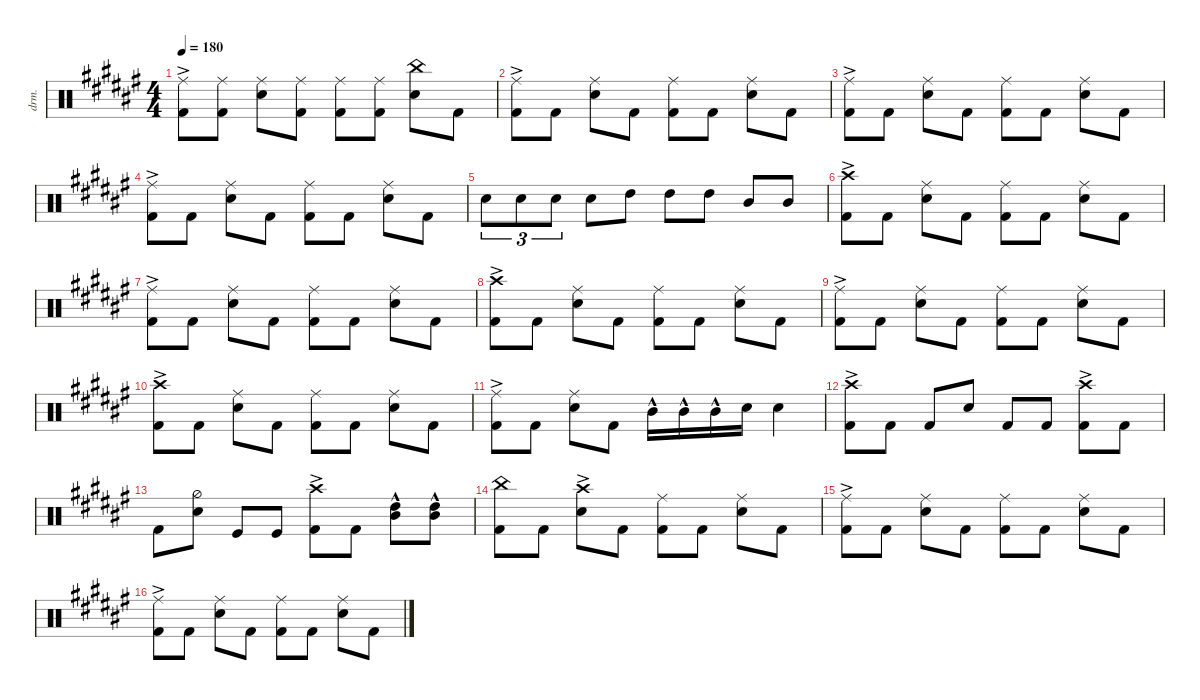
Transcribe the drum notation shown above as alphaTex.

\defaultSystemsLayout 4
\hideDynamics
\bracketExtendMode nobrackets
\otherSystemsTrackNameOrientation horizontal
\track ("Drum" "drm.") {instrument percussion}
\staff {score}
\articulation defaults
\ts (4 4)
\tempo 180
\clef neutral
\ks f#
("Kick (hit) 2"{ac acc forcenatural} "Ride (middle)"{acc forcenatural}).8{dy f beam Down} ("Kick (hit) 2"{acc forcenatural} "Ride (middle)"{acc forcenatural}).8{beam Down} ("Snare (hit) 2"{acc forcenatural} "Ride (middle)"{acc forcenatural}).8{beam Down} ("Kick (hit) 2"{acc forcenatural} "Ride (middle)"{acc forcenatural}).8{beam Down} ("Kick (hit) 2"{acc forcenatural} "Ride (middle)"{acc forcenatural}).8{beam Down} ("Kick (hit) 2"{acc forcenatural} "Ride (middle)"{acc forcenatural}).8{beam Down} ("Snare (hit) 2"{acc forcenatural} "China (hit)"{acc forcenatural}).8{beam Down} "Kick (hit) 2"{acc forcenatural}.8{beam Down} |
("Kick (hit) 2"{ac acc forcenatural} "Ride (middle)"{acc forcenatural}).8{beam Down} "Kick (hit) 2"{acc forcenatural}.8{beam Down} ("Snare (hit) 2"{acc forcenatural} "Ride (middle)"{acc forcenatural}).8{beam Down} "Kick (hit) 2"{acc forcenatural}.8{beam Down} ("Kick (hit) 2"{acc forcenatural} "Ride (middle)"{acc forcenatural}).8{beam Down} "Kick (hit) 2"{acc forcenatural}.8{beam Down} ("Snare (hit) 2"{acc forcenatural} "Ride (middle)"{acc forcenatural}).8{beam Down} "Kick (hit) 2"{acc forcenatural}.8{beam Down} |
("Kick (hit) 2"{ac acc forcenatural} "Ride (middle)"{acc forcenatural}).8{beam Down} "Kick (hit) 2"{acc forcenatural}.8{beam Down} ("Snare (hit) 2"{acc forcenatural} "Ride (middle)"{acc forcenatural}).8{beam Down} "Kick (hit) 2"{acc forcenatural}.8{beam Down} ("Kick (hit) 2"{acc forcenatural} "Ride (middle)"{acc forcenatural}).8{beam Down} "Kick (hit) 2"{acc forcenatural}.8{beam Down} ("Snare (hit) 2"{acc forcenatural} "Ride (middle)"{acc forcenatural}).8{beam Down} "Kick (hit) 2"{acc forcenatural}.8{beam Down} |
("Kick (hit) 2"{ac acc forcenatural} "Ride (middle)"{acc forcenatural}).8{beam Down} "Kick (hit) 2"{acc forcenatural}.8{beam Down} ("Snare (hit) 2"{acc forcenatural} "Ride (middle)"{acc forcenatural}).8{beam Down} "Kick (hit) 2"{acc forcenatural}.8{beam Down} ("Kick (hit) 2"{acc forcenatural} "Ride (middle)"{acc forcenatural}).8{beam Down} "Kick (hit) 2"{acc forcenatural}.8{beam Down} ("Snare (hit) 2"{acc forcenatural} "Ride (middle)"{acc forcenatural}).8{beam Down} "Kick (hit) 2"{acc forcenatural}.8{beam Down} |
"Snare (hit) 2"{acc forcenatural}.8{tu (3 2) beam Down} "Snare (hit) 2"{acc forcenatural}.8{tu (3 2) beam Down} "Snare (hit) 2"{acc forcenatural}.8{tu (3 2) beam Down} "Snare (hit) 2"{acc forcenatural}.8{beam Down} "High Tom (hit)"{acc forcenatural}.8{beam Down} "High Tom (hit)"{acc forcenatural}.8{beam Down} "High Tom (hit)"{acc forcenatural}.8{beam Down} "Mid Tom (hit)"{acc forcenatural}.8{beam Up} "Mid Tom (hit)"{acc forcenatural}.8{beam Up} |
("Kick (hit) 2"{ac acc forcenatural} "Crash high (hit)"{acc forcenatural}).8{beam Down} "Kick (hit) 2"{acc forcenatural}.8{beam Down} ("Snare (hit) 2"{acc forcenatural} "Ride (middle)"{acc forcenatural}).8{beam Down} "Kick (hit) 2"{acc forcenatural}.8{beam Down} ("Kick (hit) 2"{acc forcenatural} "Ride (middle)"{acc forcenatural}).8{beam Down} "Kick (hit) 2"{acc forcenatural}.8{beam Down} ("Snare (hit) 2"{acc forcenatural} "Ride (middle)"{acc forcenatural}).8{beam Down} "Kick (hit) 2"{acc forcenatural}.8{beam Down} |
("Kick (hit) 2"{ac acc forcenatural} "Ride (middle)"{acc forcenatural}).8{beam Down} "Kick (hit) 2"{acc forcenatural}.8{beam Down} ("Snare (hit) 2"{acc forcenatural} "Ride (middle)"{acc forcenatural}).8{beam Down} "Kick (hit) 2"{acc forcenatural}.8{beam Down} ("Kick (hit) 2"{acc forcenatural} "Ride (middle)"{acc forcenatural}).8{beam Down} "Kick (hit) 2"{acc forcenatural}.8{beam Down} ("Snare (hit) 2"{acc forcenatural} "Ride (middle)"{acc forcenatural}).8{beam Down} "Kick (hit) 2"{acc forcenatural}.8{beam Down} |
("Kick (hit) 2"{ac acc forcenatural} "Crash high (hit)"{acc forcenatural}).8{beam Down} "Kick (hit) 2"{acc forcenatural}.8{beam Down} ("Snare (hit) 2"{acc forcenatural} "Ride (middle)"{acc forcenatural}).8{beam Down} "Kick (hit) 2"{acc forcenatural}.8{beam Down} ("Kick (hit) 2"{acc forcenatural} "Ride (middle)"{acc forcenatural}).8{beam Down} "Kick (hit) 2"{acc forcenatural}.8{beam Down} ("Snare (hit) 2"{acc forcenatural} "Ride (middle)"{acc forcenatural}).8{beam Down} "Kick (hit) 2"{acc forcenatural}.8{beam Down} |
("Kick (hit) 2"{ac acc forcenatural} "Ride (middle)"{acc forcenatural}).8{beam Down} "Kick (hit) 2"{acc forcenatural}.8{beam Down} ("Snare (hit) 2"{acc forcenatural} "Ride (middle)"{acc forcenatural}).8{beam Down} "Kick (hit) 2"{acc forcenatural}.8{beam Down} ("Kick (hit) 2"{acc forcenatural} "Ride (middle)"{acc forcenatural}).8{beam Down} "Kick (hit) 2"{acc forcenatural}.8{beam Down} ("Snare (hit) 2"{acc forcenatural} "Ride (middle)"{acc forcenatural}).8{beam Down} "Kick (hit) 2"{acc forcenatural}.8{beam Down} |
("Kick (hit) 2"{ac acc forcenatural} "Crash high (hit)"{acc forcenatural}).8{beam Down} "Kick (hit) 2"{acc forcenatural}.8{beam Down} ("Snare (hit) 2"{acc forcenatural} "Ride (middle)"{acc forcenatural}).8{beam Down} "Kick (hit) 2"{acc forcenatural}.8{beam Down} ("Kick (hit) 2"{acc forcenatural} "Ride (middle)"{acc forcenatural}).8{beam Down} "Kick (hit) 2"{acc forcenatural}.8{beam Down} ("Snare (hit) 2"{acc forcenatural} "Ride (middle)"{acc forcenatural}).8{beam Down} "Kick (hit) 2"{acc forcenatural}.8{beam Down} |
("Kick (hit) 2"{ac acc forcenatural} "Ride (middle)"{acc forcenatural}).8{beam Down} "Kick (hit) 2"{acc forcenatural}.8{beam Down} ("Snare (hit) 2"{acc forcenatural} "Ride (middle)"{acc forcenatural}).8{beam Down} "Kick (hit) 2"{acc forcenatural}.8{beam Down} "Mid Tom (hit)"{hac acc forcenatural}.16{beam Down} "Mid Tom (hit)"{hac acc forcenatural}.16{beam Down} "Mid Tom (hit)"{hac acc forcenatural}.16{beam Down} "Snare (hit) 2"{acc forcenatural}.16{beam Down} "Snare (hit) 2"{acc forcenatural}.4{beam Down} |
("Kick (hit) 2"{ac acc forcenatural} "Crash high (hit)"{ac acc forcenatural}).8{beam Down} "Kick (hit) 2"{acc forcenatural}.8{beam Down} "Kick (hit) 2"{acc forcenatural}.8{beam Up} "Snare (hit) 2"{acc forcenatural}.8{beam Up} "Kick (hit) 2"{acc forcenatural}.8{beam Up} "Kick (hit) 2"{acc forcenatural}.8{beam Up} ("Kick (hit) 2"{ac acc forcenatural} "Crash high (hit)"{ac acc forcenatural}).8{beam Down} "Kick (hit) 2"{acc forcenatural}.8{beam Down} |
"Kick (hit) 2"{acc forcenatural}.8{beam Down} ("Snare (hit) 2"{acc forcenatural} "Hi-Hat (half)"{acc forcenatural}).8{beam Down} "Kick (hit)"{acc forcenatural}.8{beam Up} "Kick (hit)"{acc forcenatural}.8{beam Up} ("Kick (hit) 2"{ac acc forcenatural} "Crash high (hit)"{ac acc forcenatural}).8{beam Down} "Kick (hit) 2"{acc forcenatural}.8{beam Down} ("High Tom (hit)"{hac acc forcenatural} "Mid Tom (hit)"{hac acc forcenatural}).8{beam Down} ("High Tom (hit)"{hac acc forcenatural} "Mid Tom (hit)"{hac acc forcenatural}).8{beam Down} |
("Kick (hit) 2"{acc forcenatural} "China (hit)"{acc forcenatural}).8{beam Down} "Kick (hit) 2"{acc forcenatural}.8{beam Down} ("Snare (hit) 2"{ac acc forcenatural} "Crash high (hit)"{ac acc forcenatural}).8{beam Down} "Kick (hit) 2"{acc forcenatural}.8{beam Down} ("Kick (hit) 2"{acc forcenatural} "Ride (middle)"{acc forcenatural}).8{beam Down} "Kick (hit) 2"{acc forcenatural}.8{beam Down} ("Snare (hit) 2"{acc forcenatural} "Ride (middle)"{acc forcenatural}).8{beam Down} "Kick (hit) 2"{acc forcenatural}.8{beam Down} |
("Kick (hit) 2"{ac acc forcenatural} "Ride (middle)"{acc forcenatural}).8{beam Down} "Kick (hit) 2"{acc forcenatural}.8{beam Down} ("Snare (hit) 2"{acc forcenatural} "Ride (middle)"{acc forcenatural}).8{beam Down} "Kick (hit) 2"{acc forcenatural}.8{beam Down} ("Kick (hit) 2"{acc forcenatural} "Ride (middle)"{acc forcenatural}).8{beam Down} "Kick (hit) 2"{acc forcenatural}.8{beam Down} ("Snare (hit) 2"{acc forcenatural} "Ride (middle)"{acc forcenatural}).8{beam Down} "Kick (hit) 2"{acc forcenatural}.8{beam Down} |
("Kick (hit) 2"{ac acc forcenatural} "Ride (middle)"{acc forcenatural}).8{beam Down} "Kick (hit) 2"{acc forcenatural}.8{beam Down} ("Snare (hit) 2"{acc forcenatural} "Ride (middle)"{acc forcenatural}).8{beam Down} "Kick (hit) 2"{acc forcenatural}.8{beam Down} ("Kick (hit) 2"{acc forcenatural} "Ride (middle)"{acc forcenatural}).8{beam Down} "Kick (hit) 2"{acc forcenatural}.8{beam Down} ("Snare (hit) 2"{acc forcenatural} "Ride (middle)"{acc forcenatural}).8{beam Down} "Kick (hit) 2"{acc forcenatural}.8{beam Down}
